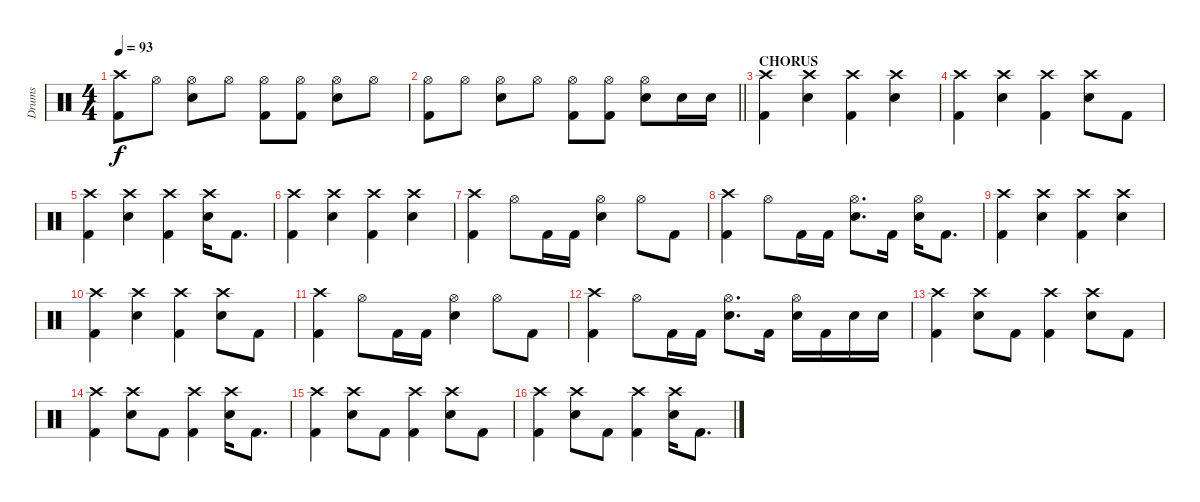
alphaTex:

\track ("Drums" "Drums") {instrument percussion}
\staff
\articulation defaults
\ts (4 4)
\tempo 93
\clef neutral
\ks c
("Crash high (hit)" "Kick (hit) 2").8{dy f} "Hi-Hat (open)".8 ("Hi-Hat (open)" "Snare (hit) 2").8 "Hi-Hat (open)".8 ("Hi-Hat (open)" "Kick (hit) 2").8 ("Hi-Hat (open)" "Kick (hit) 2").8 ("Hi-Hat (open)" "Snare (hit) 2").8 "Hi-Hat (open)".8 |
\barLineRight lightlight
("Hi-Hat (open)" "Kick (hit) 2").8 "Hi-Hat (open)".8 ("Hi-Hat (open)" "Snare (hit) 2").8 "Hi-Hat (open)".8 ("Hi-Hat (open)" "Kick (hit) 2").8 ("Hi-Hat (open)" "Kick (hit) 2").8 ("Hi-Hat (open)" "Snare (hit) 2").8 "Snare (hit) 2".16 "Snare (hit) 2".16 |
\section ("" "CHORUS")
("Crash high (hit)" "Kick (hit) 2").4 ("Crash high (hit)" "Snare (hit) 2").4 ("Crash high (hit)" "Kick (hit) 2").4 ("Crash high (hit)" "Snare (hit) 2").4 |
("Crash high (hit)" "Kick (hit) 2").4 ("Crash high (hit)" "Snare (hit) 2").4 ("Crash high (hit)" "Kick (hit) 2").4 ("Crash high (hit)" "Snare (hit) 2").8 "Kick (hit) 2".8 |
("Crash high (hit)" "Kick (hit) 2").4 ("Crash high (hit)" "Snare (hit) 2").4 ("Crash high (hit)" "Kick (hit) 2").4 ("Crash high (hit)" "Snare (hit) 2").16 "Kick (hit) 2".8{d} |
("Crash high (hit)" "Kick (hit) 2").4 ("Crash high (hit)" "Snare (hit) 2").4 ("Crash high (hit)" "Kick (hit) 2").4 ("Crash high (hit)" "Snare (hit) 2").4 |
("Crash high (hit)" "Kick (hit) 2").4 "Hi-Hat (open)".8 "Kick (hit) 2".16 "Kick (hit) 2".16 ("Hi-Hat (open)" "Snare (hit) 2").4 "Hi-Hat (open)".8 "Kick (hit) 2".8 |
("Crash high (hit)" "Kick (hit) 2").4 "Hi-Hat (open)".8 "Kick (hit) 2".16 "Kick (hit) 2".16 ("Hi-Hat (open)" "Snare (hit) 2").8{d} "Kick (hit) 2".16 ("Hi-Hat (open)" "Snare (hit) 2").16 "Kick (hit) 2".8{d} |
("Crash high (hit)" "Kick (hit) 2").4 ("Crash high (hit)" "Snare (hit) 2").4 ("Crash high (hit)" "Kick (hit) 2").4 ("Crash high (hit)" "Snare (hit) 2").4 |
("Crash high (hit)" "Kick (hit) 2").4 ("Crash high (hit)" "Snare (hit) 2").4 ("Crash high (hit)" "Kick (hit) 2").4 ("Crash high (hit)" "Snare (hit) 2").8 "Kick (hit) 2".8 |
("Crash high (hit)" "Kick (hit) 2").4 "Hi-Hat (open)".8 "Kick (hit) 2".16 "Kick (hit) 2".16 ("Hi-Hat (open)" "Snare (hit) 2").4 "Hi-Hat (open)".8 "Kick (hit) 2".8 |
("Crash high (hit)" "Kick (hit) 2").4 "Hi-Hat (open)".8 "Kick (hit) 2".16 "Kick (hit) 2".16 ("Hi-Hat (open)" "Snare (hit) 2").8{d} "Kick (hit) 2".16 ("Hi-Hat (open)" "Snare (hit) 2").16 "Kick (hit) 2".16 "Snare (hit) 2".16 "Snare (hit) 2".16 |
("Crash high (hit)" "Kick (hit) 2").4 ("Crash high (hit)" "Snare (hit) 2").8 "Kick (hit) 2".8 ("Crash high (hit)" "Kick (hit) 2").4 ("Crash high (hit)" "Snare (hit) 2").8 "Kick (hit) 2".8 |
("Crash high (hit)" "Kick (hit) 2").4 ("Crash high (hit)" "Snare (hit) 2").8 "Kick (hit) 2".8 ("Crash high (hit)" "Kick (hit) 2").4 ("Crash high (hit)" "Snare (hit) 2").16 "Kick (hit) 2".8{d} |
("Crash high (hit)" "Kick (hit) 2").4 ("Crash high (hit)" "Snare (hit) 2").8 "Kick (hit) 2".8 ("Crash high (hit)" "Kick (hit) 2").4 ("Crash high (hit)" "Snare (hit) 2").8 "Kick (hit) 2".8 |
("Crash high (hit)" "Kick (hit) 2").4 ("Crash high (hit)" "Snare (hit) 2").8 "Kick (hit) 2".8 ("Crash high (hit)" "Kick (hit) 2").4 ("Crash high (hit)" "Snare (hit) 2").16 "Kick (hit) 2".8{d}
